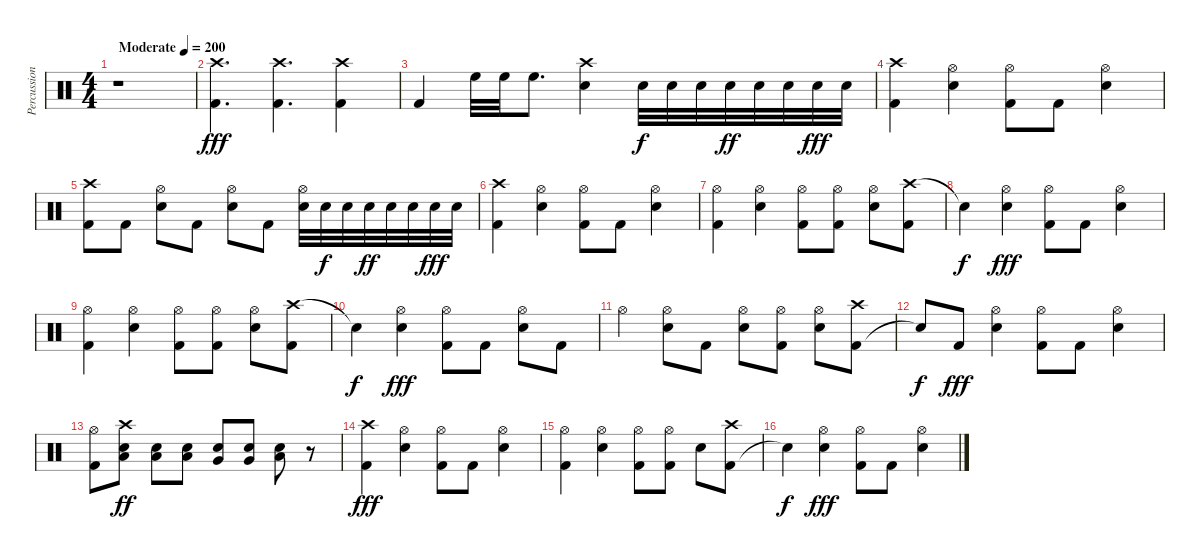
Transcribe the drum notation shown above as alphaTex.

\track ("Percussion" "Percussion") {instrument percussion}
\staff {score}
\articulation defaults
\ts (4 4)
\tempo (200 "Moderate")
\clef neutral
\ks c
r.1{dy fff} |
("Crash high (hit)" "Kick (hit) 2").4{d} ("Crash high (hit)" "Kick (hit) 2").4{d} ("Crash high (hit)" "Kick (hit) 2").4 |
"Kick (hit) 2".4 "High Floor Tom (hit)".32 "High Floor Tom (hit)".32 "High Floor Tom (hit)".8{d} ("Snare (hit) 2" "Crash high (hit)").4 "Snare (hit) 2".32{dy f} "Snare (hit) 2".32 "Snare (hit) 2".32 "Snare (hit) 2".32{dy ff} "Snare (hit) 2".32 "Snare (hit) 2".32 "Snare (hit) 2".32{dy fff} "Snare (hit) 2".32 |
("Crash high (hit)" "Kick (hit) 2").4 ("Snare (hit) 2" "Hi-Hat (open)").4 ("Hi-Hat (open)" "Kick (hit) 2").8 "Kick (hit) 2".8 ("Snare (hit) 2" "Hi-Hat (open)").4 |
("Crash high (hit)" "Kick (hit) 2").8 "Kick (hit) 2".8 ("Snare (hit) 2" "Hi-Hat (open)").8 "Kick (hit) 2".8 ("Snare (hit) 2" "Hi-Hat (open)").8 "Kick (hit) 2".8 ("Snare (hit) 2" "Hi-Hat (open)").32 "Snare (hit) 2".32{dy f} "Snare (hit) 2".32 "Snare (hit) 2".32{dy ff} "Snare (hit) 2".32 "Snare (hit) 2".32 "Snare (hit) 2".32{dy fff} "Snare (hit) 2".32 |
("Kick (hit) 2" "Crash high (hit)").4 ("Snare (hit) 2" "Hi-Hat (open)").4 ("Kick (hit) 2" "Hi-Hat (open)").8 "Kick (hit) 2".8 ("Snare (hit) 2" "Hi-Hat (open)").4 |
("Kick (hit) 2" "Hi-Hat (open)").4 ("Snare (hit) 2" "Hi-Hat (open)").4 ("Kick (hit) 2" "Hi-Hat (open)").8 ("Kick (hit) 2" "Hi-Hat (open)").8 ("Snare (hit) 2" "Hi-Hat (open)").8 ("Crash high (hit)" "Kick (hit) 2").8 |
"Snare (hit)"{t}.4{dy f} ("Snare (hit) 2" "Hi-Hat (open)").4{dy fff} ("Kick (hit) 2" "Hi-Hat (open)").8 "Kick (hit) 2".8 ("Snare (hit) 2" "Hi-Hat (open)").4 |
("Kick (hit) 2" "Hi-Hat (open)").4 ("Snare (hit) 2" "Hi-Hat (open)").4 ("Kick (hit) 2" "Hi-Hat (open)").8 ("Kick (hit) 2" "Hi-Hat (open)").8 ("Snare (hit) 2" "Hi-Hat (open)").8 ("Crash high (hit)" "Kick (hit) 2").8 |
"Snare (hit)"{t}.4{dy f} ("Snare (hit) 2" "Hi-Hat (open)").4{dy fff} ("Kick (hit) 2" "Hi-Hat (open)").8 "Kick (hit) 2".8 ("Snare (hit) 2" "Hi-Hat (open)").8 "Kick (hit) 2".8 |
"Hi-Hat (open)".4 ("Snare (hit) 2" "Hi-Hat (open)").8 "Kick (hit) 2".8 ("Hi-Hat (open)" "Snare (hit) 2").8 ("Kick (hit) 2" "Hi-Hat (open)").8 ("Snare (hit) 2" "Hi-Hat (open)").8 ("Kick (hit) 2" "Crash high (hit)").8 |
"Snare (hit)"{t}.8{dy f} "Kick (hit) 2".8{dy fff} ("Hi-Hat (open)" "Snare (hit) 2").4 ("Hi-Hat (open)" "Kick (hit) 2").8 "Kick (hit) 2".8 ("Hi-Hat (open)" "Snare (hit) 2").4 |
("Kick (hit) 2" "Hi-Hat (open)").8 ("Crash high (hit)" "Low Tom (hit)" "Snare (hit) 2").8{dy ff} ("Low Tom (hit)" "Snare (hit) 2").8 ("Low Tom (hit)" "Snare (hit) 2").8 ("Very Low Tom (hit)" "Snare (hit) 2").8 ("Very Low Tom (hit)" "Snare (hit) 2").8 ("Low Floor Tom (hit)" "Snare (hit) 2").8 r.8 |
("Kick (hit) 2" "Crash high (hit)").4{dy fff} ("Snare (hit) 2" "Hi-Hat (open)").4 ("Kick (hit) 2" "Hi-Hat (open)").8 "Kick (hit) 2".8 ("Snare (hit) 2" "Hi-Hat (open)").4 |
("Kick (hit) 2" "Hi-Hat (open)").4 ("Snare (hit) 2" "Hi-Hat (open)").4 ("Kick (hit) 2" "Hi-Hat (open)").8 ("Kick (hit) 2" "Hi-Hat (open)").8 "Snare (hit) 2".8 ("Kick (hit) 2" "Crash high (hit)").8 |
"Snare (hit)"{t}.4{dy f} ("Snare (hit) 2" "Hi-Hat (open)").4{dy fff} ("Kick (hit) 2" "Hi-Hat (open)").8 "Kick (hit) 2".8 ("Snare (hit) 2" "Hi-Hat (open)").4
